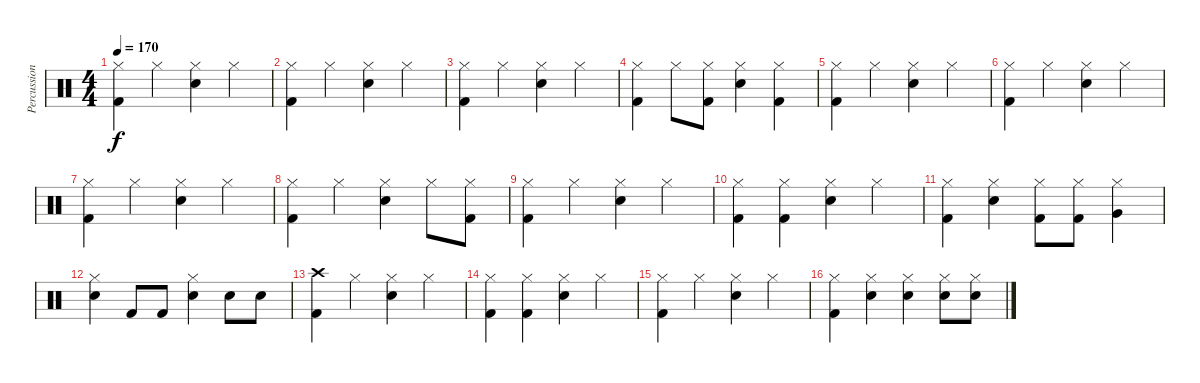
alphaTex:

\track ("Percussion" "Percussion") {instrument percussion}
\staff {score}
\articulation defaults
\ts (4 4)
\tempo 170
\clef neutral
\ks c
("Hi-Hat (closed)" "Kick (hit) 2").4{dy f} "Hi-Hat (closed)".4 ("Hi-Hat (closed)" "Snare (hit) 2").4 "Hi-Hat (closed)".4 |
("Hi-Hat (closed)" "Kick (hit) 2").4 "Hi-Hat (closed)".4 ("Hi-Hat (closed)" "Snare (hit) 2").4 "Hi-Hat (closed)".4 |
("Hi-Hat (closed)" "Kick (hit) 2").4 "Hi-Hat (closed)".4 ("Hi-Hat (closed)" "Snare (hit) 2").4 "Hi-Hat (closed)".4 |
("Hi-Hat (closed)" "Kick (hit) 2").4 "Hi-Hat (closed)".8 ("Hi-Hat (closed)" "Kick (hit) 2").8 ("Hi-Hat (closed)" "Snare (hit) 2").4 ("Hi-Hat (closed)" "Kick (hit) 2").4 |
("Hi-Hat (closed)" "Kick (hit) 2").4 "Hi-Hat (closed)".4 ("Hi-Hat (closed)" "Snare (hit) 2").4 "Hi-Hat (closed)".4 |
("Hi-Hat (closed)" "Kick (hit) 2").4 "Hi-Hat (closed)".4 ("Hi-Hat (closed)" "Snare (hit) 2").4 "Hi-Hat (closed)".4 |
("Hi-Hat (closed)" "Kick (hit) 2").4 "Hi-Hat (closed)".4 ("Hi-Hat (closed)" "Snare (hit) 2").4 "Hi-Hat (closed)".4 |
("Hi-Hat (closed)" "Kick (hit) 2").4 "Hi-Hat (closed)".4 ("Hi-Hat (closed)" "Snare (hit) 2").4 "Hi-Hat (closed)".8 ("Hi-Hat (closed)" "Kick (hit) 2").8 |
("Hi-Hat (closed)" "Kick (hit) 2").4 "Hi-Hat (closed)".4 ("Hi-Hat (closed)" "Snare (hit) 2").4 "Hi-Hat (closed)".4 |
("Hi-Hat (closed)" "Kick (hit) 2").4 ("Hi-Hat (closed)" "Kick (hit) 2").4 ("Hi-Hat (closed)" "Snare (hit) 2").4 "Hi-Hat (closed)".4 |
("Hi-Hat (closed)" "Kick (hit) 2").4 ("Hi-Hat (closed)" "Snare (hit) 2").4 ("Hi-Hat (closed)" "Kick (hit) 2").8 ("Hi-Hat (closed)" "Kick (hit) 2").8 ("Hi-Hat (closed)" "Very Low Tom (hit)").4 |
("Hi-Hat (closed)" "Snare (hit) 2").4 "Kick (hit) 2".8 "Kick (hit) 2".8 ("Hi-Hat (closed)" "Snare (hit) 2").4 "Snare (hit) 2".8 "Snare (hit) 2".8 |
("Crash high (hit)" "Kick (hit) 2").4 "Hi-Hat (closed)".4 ("Hi-Hat (closed)" "Snare (hit) 2").4 "Hi-Hat (closed)".4 |
("Hi-Hat (closed)" "Kick (hit) 2").4 ("Hi-Hat (closed)" "Kick (hit) 2").4 ("Hi-Hat (closed)" "Snare (hit) 2").4 "Hi-Hat (closed)".4 |
("Hi-Hat (closed)" "Kick (hit) 2").4 "Hi-Hat (closed)".4 ("Hi-Hat (closed)" "Snare (hit) 2").4 "Hi-Hat (closed)".4 |
("Hi-Hat (closed)" "Kick (hit) 2").4 ("Hi-Hat (closed)" "Snare (hit) 2").4 ("Hi-Hat (closed)" "Snare (hit) 2").4 ("Hi-Hat (closed)" "Snare (hit) 2").8 ("Hi-Hat (closed)" "Snare (hit) 2").8
